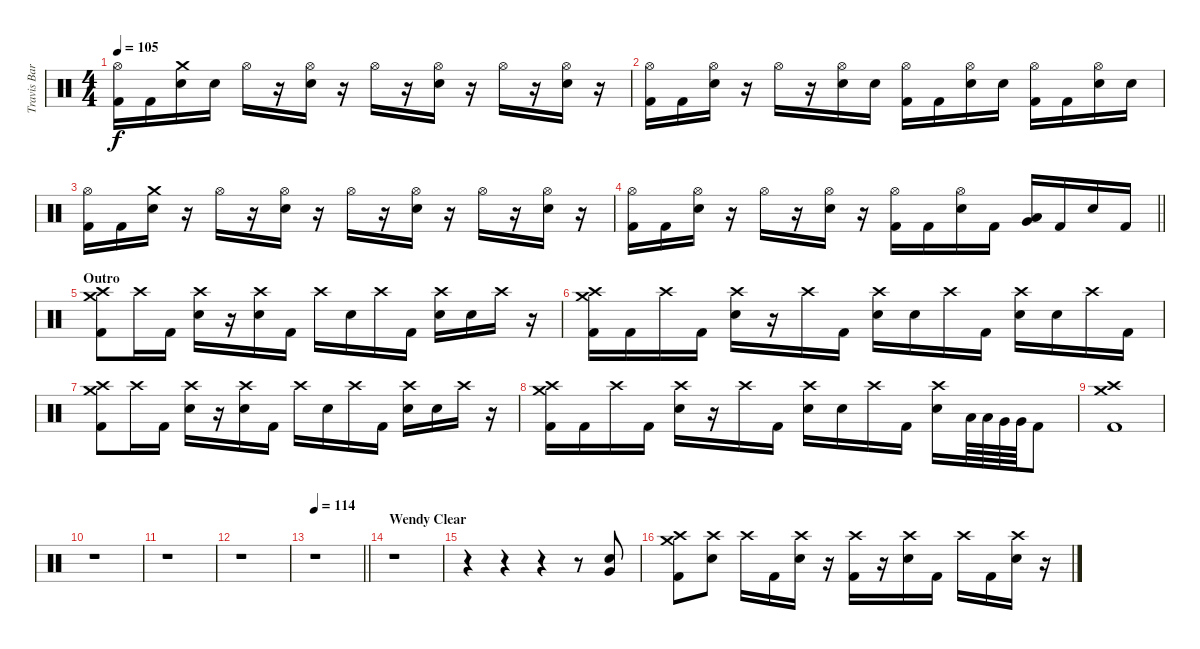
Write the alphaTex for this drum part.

\track ("Travis Barker" "Travis Bar") {instrument percussion}
\staff {score}
\articulation defaults
\ts (4 4)
\tempo 105
\clef neutral
\ks c
("Hi-Hat (open)" "Kick (hit) 2").16{dy f} "Kick (hit) 2".16 ("Crash medium (hit)" "Electric Snare (hit)").16 "Electric Snare (hit)".16 "Hi-Hat (open)".16 r.16 ("Hi-Hat (open)" "Electric Snare (hit)").16 r.16 "Hi-Hat (open)".16 r.16 ("Hi-Hat (open)" "Electric Snare (hit)").16 r.16 "Hi-Hat (open)".16 r.16 ("Hi-Hat (open)" "Electric Snare (hit)").16 r.16 |
("Hi-Hat (open)" "Kick (hit) 2").16 "Kick (hit) 2".16 ("Hi-Hat (open)" "Electric Snare (hit)").16 r.16 "Hi-Hat (open)".16 r.16 ("Hi-Hat (open)" "Electric Snare (hit)").16 "Electric Snare (hit)".16 ("Hi-Hat (open)" "Kick (hit) 2").16 "Kick (hit) 2".16 ("Hi-Hat (open)" "Electric Snare (hit)").16 "Electric Snare (hit)".16 ("Hi-Hat (open)" "Kick (hit) 2").16 "Kick (hit) 2".16 ("Hi-Hat (open)" "Electric Snare (hit)").16 "Electric Snare (hit)".16 |
("Hi-Hat (open)" "Kick (hit) 2").16 "Kick (hit) 2".16 ("Crash medium (hit)" "Electric Snare (hit)").16 r.16 "Hi-Hat (open)".16 r.16 ("Hi-Hat (open)" "Electric Snare (hit)").16 r.16 "Hi-Hat (open)".16 r.16 ("Hi-Hat (open)" "Electric Snare (hit)").16 r.16 "Hi-Hat (open)".16 r.16 ("Hi-Hat (open)" "Electric Snare (hit)").16 r.16 |
\barLineRight lightlight
("Hi-Hat (open)" "Kick (hit) 2").16 "Kick (hit) 2".16 ("Hi-Hat (open)" "Electric Snare (hit)").16 r.16 "Hi-Hat (open)".16 r.16 ("Hi-Hat (open)" "Electric Snare (hit)").16 r.16 ("Hi-Hat (open)" "Kick (hit) 2").16 "Kick (hit) 2".16 ("Hi-Hat (open)" "Electric Snare (hit)").16 "Kick (hit) 2".16 ("Low Tom (hit)" "Very Low Tom (hit)").16 "Kick (hit) 2".16 "Electric Snare (hit)".16 "Kick (hit) 2".16 |
\section ("" "Outro")
("Crash medium (hit)" "Crash high (hit)" "Kick (hit) 2").8 "Crash high (hit)".16 "Kick (hit) 2".16 ("Crash high (hit)" "Electric Snare (hit)").16 r.16 ("Crash high (hit)" "Electric Snare (hit)").16 "Kick (hit) 2".16 "Crash high (hit)".16 "Electric Snare (hit)".16 "Crash high (hit)".16 "Kick (hit) 2".16 ("Crash high (hit)" "Electric Snare (hit)").16 "Electric Snare (hit)".16 "Crash high (hit)".16 r.16 |
("Crash medium (hit)" "Crash high (hit)" "Kick (hit) 2").16 "Kick (hit) 2".16 "Crash high (hit)".16 "Kick (hit) 2".16 ("Crash high (hit)" "Electric Snare (hit)").16 r.16 "Crash high (hit)".16 "Kick (hit) 2".16 ("Crash high (hit)" "Electric Snare (hit)").16 "Electric Snare (hit)".16 "Crash high (hit)".16 "Kick (hit) 2".16 ("Crash high (hit)" "Electric Snare (hit)").16 "Electric Snare (hit)".16 "Crash high (hit)".16 "Kick (hit) 2".16 |
("Crash medium (hit)" "Crash high (hit)" "Kick (hit) 2").8 "Crash high (hit)".16 "Kick (hit) 2".16 ("Crash high (hit)" "Electric Snare (hit)").16 r.16 ("Crash high (hit)" "Electric Snare (hit)").16 "Kick (hit) 2".16 "Crash high (hit)".16 "Electric Snare (hit)".16 "Crash high (hit)".16 "Kick (hit) 2".16 ("Crash high (hit)" "Electric Snare (hit)").16 "Electric Snare (hit)".16 "Crash high (hit)".16 r.16 |
("Crash medium (hit)" "Crash high (hit)" "Kick (hit) 2").16 "Kick (hit) 2".16 "Crash high (hit)".16 "Kick (hit) 2".16 ("Crash high (hit)" "Electric Snare (hit)").16 r.16 "Crash high (hit)".16 "Kick (hit) 2".16 ("Crash high (hit)" "Electric Snare (hit)").16 "Electric Snare (hit)".16 "Crash high (hit)".16 "Kick (hit) 2".16 ("Crash high (hit)" "Electric Snare (hit)").16 "Low Tom (hit)".64 "Low Tom (hit)".64 "Very Low Tom (hit)".64 "Very Low Tom (hit)".64 "Kick (hit) 2".8 |
("Crash medium (hit)" "Crash high (hit)" "Kick (hit) 2").1 |
r.1 |
r.1 |
r.1 |
\tempo 114
\barLineRight lightlight
r.1 |
\section ("" "Wendy Clear")
r.1 |
r.4 r.4 r.4 r.8 ("Electric Snare (hit)" "Very Low Tom (hit)").8 |
("Crash medium (hit)" "Crash high (hit)" "Kick (hit) 2").8 ("Crash high (hit)" "Electric Snare (hit)").8 "Crash high (hit)".16 "Kick (hit) 2".16 ("Crash high (hit)" "Electric Snare (hit)").16 r.16 ("Crash high (hit)" "Kick (hit) 2").16 r.16 ("Crash high (hit)" "Electric Snare (hit)").16 "Kick (hit) 2".16 "Crash high (hit)".16 "Kick (hit) 2".16 ("Crash high (hit)" "Electric Snare (hit)").16 r.16
